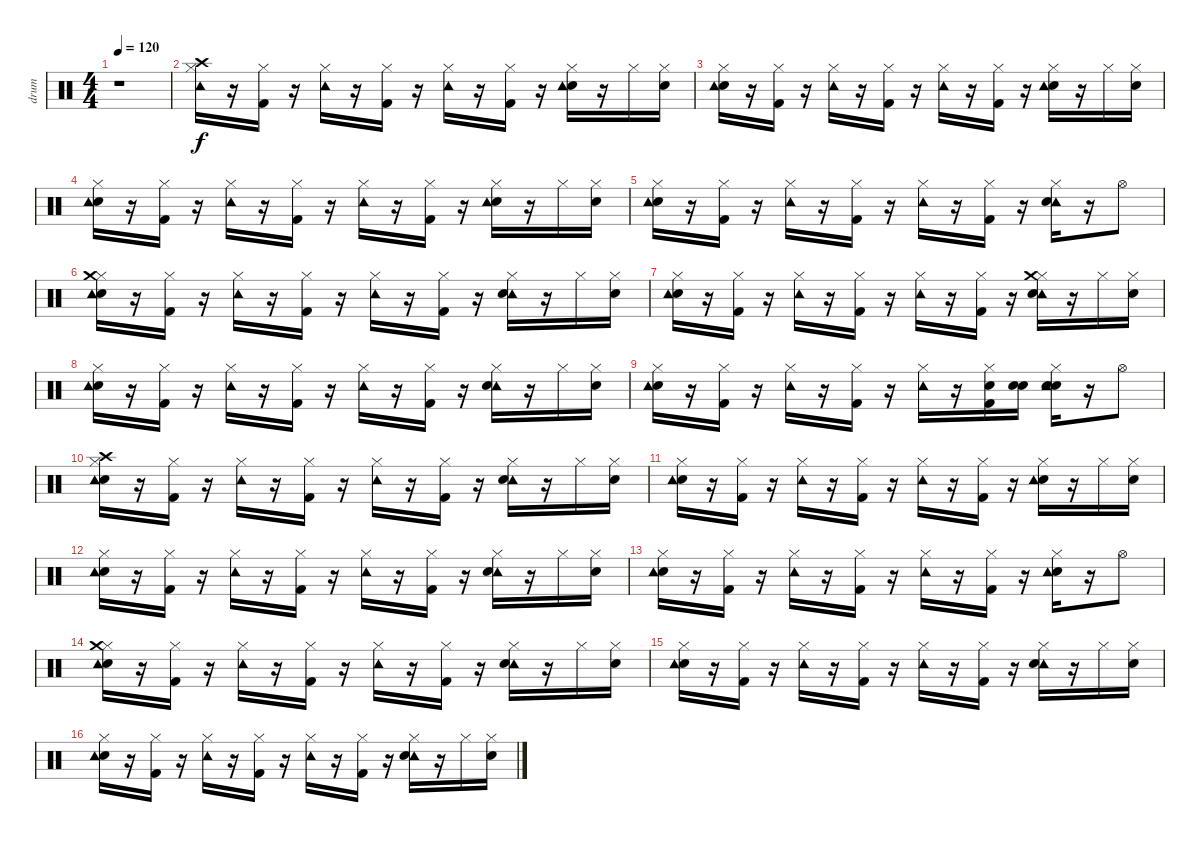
\track ("drum" "drum") {instrument percussion}
\staff {score}
\articulation defaults
\ts (4 4)
\tempo 120
\clef neutral
\ks c
r.1{dy f} |
("Hi-Hat (closed)" "Crash high (hit)" "Tambourine (hit)").16 r.16 ("Hi-Hat (closed)" "Kick (hit) 2").16 r.16 ("Tambourine (hit)" "Hi-Hat (closed)").16 r.16 ("Hi-Hat (closed)" "Kick (hit) 2").16 r.16 ("Hi-Hat (closed)" "Tambourine (hit)").16 r.16 ("Kick (hit) 2" "Hi-Hat (closed)").16 r.16 ("Snare (hit) 2" "Hi-Hat (closed)" "Tambourine (hit)").16 r.16 "Hi-Hat (closed)".16 ("Snare (hit)" "Hi-Hat (closed)").16 |
("Snare (hit)" "Hi-Hat (closed)" "Tambourine (hit)").16 r.16 ("Kick (hit) 2" "Hi-Hat (closed)").16 r.16 ("Hi-Hat (closed)" "Tambourine (hit)").16 r.16 ("Hi-Hat (closed)" "Kick (hit) 2").16 r.16 ("Tambourine (hit)" "Hi-Hat (closed)").16 r.16 ("Hi-Hat (closed)" "Kick (hit) 2").16 r.16 ("Hi-Hat (closed)" "Snare (hit) 2" "Tambourine (hit)").16 r.16 "Hi-Hat (closed)".16 ("Snare (hit)" "Hi-Hat (closed)").16 |
("Snare (hit)" "Hi-Hat (closed)" "Tambourine (hit)").16 r.16 ("Hi-Hat (closed)" "Kick (hit) 2").16 r.16 ("Hi-Hat (closed)" "Tambourine (hit)").16 r.16 ("Hi-Hat (closed)" "Kick (hit) 2").16 r.16 ("Hi-Hat (closed)" "Tambourine (hit)").16 r.16 ("Hi-Hat (closed)" "Kick (hit) 2").16 r.16 ("Snare (hit) 2" "Hi-Hat (closed)" "Tambourine (hit)").16 r.16 "Hi-Hat (closed)".16 ("Snare (hit)" "Hi-Hat (closed)").16 |
("Snare (hit)" "Hi-Hat (closed)" "Tambourine (hit)").16 r.16 ("Kick (hit) 2" "Hi-Hat (closed)").16 r.16 ("Tambourine (hit)" "Hi-Hat (closed)").16 r.16 ("Hi-Hat (closed)" "Kick (hit) 2").16 r.16 ("Hi-Hat (closed)" "Tambourine (hit)").16 r.16 ("Kick (hit) 2" "Hi-Hat (closed)").16 r.16 ("Hi-Hat (closed)" "Tambourine (hit)" "Snare (hit) 2").16 r.16 "Hi-Hat (open)".8 |
("Snare (hit)" "Tambourine (hit)" "Hi-Hat (closed)" "Crash medium (hit)").16 r.16 ("Kick (hit) 2" "Hi-Hat (closed)").16 r.16 ("Tambourine (hit)" "Hi-Hat (closed)").16 r.16 ("Hi-Hat (closed)" "Kick (hit) 2").16 r.16 ("Tambourine (hit)" "Hi-Hat (closed)").16 r.16 ("Hi-Hat (closed)" "Kick (hit) 2").16 r.16 ("Hi-Hat (closed)" "Tambourine (hit)" "Snare (hit) 2").16 r.16 "Hi-Hat (closed)".16 ("Snare (hit)" "Hi-Hat (closed)").16 |
("Snare (hit)" "Tambourine (hit)" "Hi-Hat (closed)").16 r.16 ("Hi-Hat (closed)" "Kick (hit) 2").16 r.16 ("Hi-Hat (closed)" "Tambourine (hit)").16 r.16 ("Kick (hit) 2" "Hi-Hat (closed)").16 r.16 ("Tambourine (hit)" "Hi-Hat (closed)").16 r.16 ("Kick (hit) 2" "Hi-Hat (closed)").16 r.16 ("Tambourine (hit)" "Hi-Hat (closed)" "Crash medium (hit)" "Snare (hit) 2").16 r.16 "Hi-Hat (closed)".16 ("Snare (hit)" "Hi-Hat (closed)").16 |
("Snare (hit)" "Hi-Hat (closed)" "Tambourine (hit)").16 r.16 ("Hi-Hat (closed)" "Kick (hit) 2").16 r.16 ("Hi-Hat (closed)" "Tambourine (hit)").16 r.16 ("Kick (hit) 2" "Hi-Hat (closed)").16 r.16 ("Hi-Hat (closed)" "Tambourine (hit)").16 r.16 ("Kick (hit) 2" "Hi-Hat (closed)").16 r.16 ("Tambourine (hit)" "Snare (hit) 2" "Hi-Hat (closed)").16 r.16 "Hi-Hat (closed)".16 ("Snare (hit)" "Hi-Hat (closed)").16 |
("Snare (hit)" "Tambourine (hit)" "Hi-Hat (closed)").16 r.16 ("Kick (hit) 2" "Hi-Hat (closed)").16 r.16 ("Hi-Hat (closed)" "Tambourine (hit)").16 r.16 ("Kick (hit) 2" "Hi-Hat (closed)").16 r.16 ("Hi-Hat (closed)" "Tambourine (hit)").16 r.16 ("Kick (hit) 2" "Hi-Hat (closed)" "Snare (hit) 2").16 ("Snare (hit)" "Snare (hit) 2").16 ("Snare (hit)" "Tambourine (hit)" "Hi-Hat (closed)" "Snare (hit) 2").16 r.16 "Hi-Hat (open)".8 |
("Snare (hit)" "Crash high (hit)" "Tambourine (hit)" "Hi-Hat (closed)").16 r.16 ("Hi-Hat (closed)" "Kick (hit) 2").16 r.16 ("Tambourine (hit)" "Hi-Hat (closed)").16 r.16 ("Kick (hit) 2" "Hi-Hat (closed)").16 r.16 ("Tambourine (hit)" "Hi-Hat (closed)").16 r.16 ("Hi-Hat (closed)" "Kick (hit) 2").16 r.16 ("Tambourine (hit)" "Hi-Hat (closed)" "Snare (hit) 2").16 r.16 "Hi-Hat (closed)".16 ("Snare (hit)" "Hi-Hat (closed)").16 |
("Snare (hit)" "Tambourine (hit)" "Hi-Hat (closed)").16 r.16 ("Hi-Hat (closed)" "Kick (hit) 2").16 r.16 ("Tambourine (hit)" "Hi-Hat (closed)").16 r.16 ("Hi-Hat (closed)" "Kick (hit) 2").16 r.16 ("Tambourine (hit)" "Hi-Hat (closed)").16 r.16 ("Kick (hit) 2" "Hi-Hat (closed)").16 r.16 ("Snare (hit) 2" "Tambourine (hit)" "Hi-Hat (closed)").16 r.16 "Hi-Hat (closed)".16 ("Snare (hit)" "Hi-Hat (closed)").16 |
("Snare (hit)" "Hi-Hat (closed)" "Tambourine (hit)").16 r.16 ("Hi-Hat (closed)" "Kick (hit) 2").16 r.16 ("Tambourine (hit)" "Hi-Hat (closed)").16 r.16 ("Kick (hit) 2" "Hi-Hat (closed)").16 r.16 ("Tambourine (hit)" "Hi-Hat (closed)").16 r.16 ("Hi-Hat (closed)" "Kick (hit) 2").16 r.16 ("Hi-Hat (closed)" "Tambourine (hit)" "Snare (hit) 2").16 r.16 "Hi-Hat (closed)".16 ("Snare (hit)" "Hi-Hat (closed)").16 |
("Snare (hit)" "Hi-Hat (closed)" "Tambourine (hit)").16 r.16 ("Hi-Hat (closed)" "Kick (hit) 2").16 r.16 ("Hi-Hat (closed)" "Tambourine (hit)").16 r.16 ("Hi-Hat (closed)" "Kick (hit) 2").16 r.16 ("Hi-Hat (closed)" "Tambourine (hit)").16 r.16 ("Kick (hit) 2" "Hi-Hat (closed)").16 r.16 ("Snare (hit) 2" "Hi-Hat (closed)" "Tambourine (hit)").16 r.16 "Hi-Hat (open)".8 |
("Snare (hit)" "Tambourine (hit)" "Hi-Hat (closed)" "Crash medium (hit)").16 r.16 ("Hi-Hat (closed)" "Kick (hit) 2").16 r.16 ("Hi-Hat (closed)" "Tambourine (hit)").16 r.16 ("Kick (hit) 2" "Hi-Hat (closed)").16 r.16 ("Hi-Hat (closed)" "Tambourine (hit)").16 r.16 ("Kick (hit) 2" "Hi-Hat (closed)").16 r.16 ("Tambourine (hit)" "Hi-Hat (closed)" "Snare (hit) 2").16 r.16 "Hi-Hat (closed)".16 ("Snare (hit)" "Hi-Hat (closed)").16 |
("Snare (hit)" "Tambourine (hit)" "Hi-Hat (closed)").16 r.16 ("Kick (hit) 2" "Hi-Hat (closed)").16 r.16 ("Hi-Hat (closed)" "Tambourine (hit)").16 r.16 ("Kick (hit) 2" "Hi-Hat (closed)").16 r.16 ("Hi-Hat (closed)" "Tambourine (hit)").16 r.16 ("Hi-Hat (closed)" "Kick (hit) 2").16 r.16 ("Hi-Hat (closed)" "Tambourine (hit)" "Snare (hit) 2").16 r.16 "Hi-Hat (closed)".16 ("Snare (hit)" "Hi-Hat (closed)").16 |
("Snare (hit)" "Hi-Hat (closed)" "Tambourine (hit)").16 r.16 ("Hi-Hat (closed)" "Kick (hit) 2").16 r.16 ("Tambourine (hit)" "Hi-Hat (closed)").16 r.16 ("Kick (hit) 2" "Hi-Hat (closed)").16 r.16 ("Hi-Hat (closed)" "Tambourine (hit)").16 r.16 ("Kick (hit) 2" "Hi-Hat (closed)").16 r.16 ("Tambourine (hit)" "Snare (hit) 2" "Hi-Hat (closed)").16 r.16 "Hi-Hat (closed)".16 ("Snare (hit)" "Hi-Hat (closed)").16
